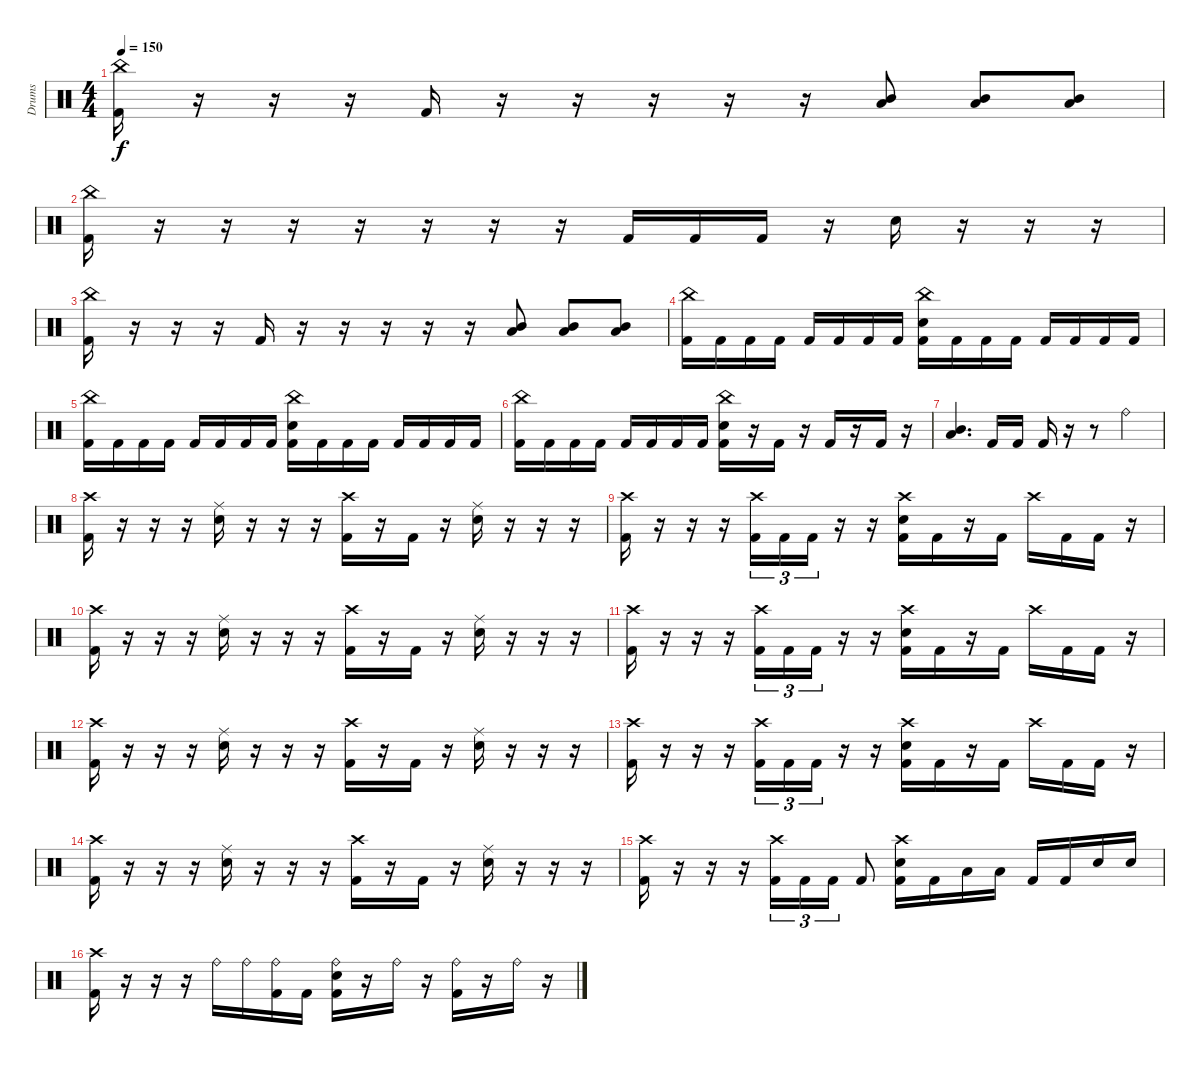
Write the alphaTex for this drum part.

\track ("Drums" "Drums") {instrument percussion}
\staff {score}
\articulation defaults
\ts (4 4)
\tempo 150
\clef neutral
\ks c
("China (hit)" "Kick (hit) 2").16{dy f} r.16 r.16 r.16 "Kick (hit) 2".16 r.16 r.16 r.16 r.16 r.16 ("Mid Tom (hit)" "Low Tom (hit)").8 ("Mid Tom (hit)" "Low Tom (hit)").8 ("Mid Tom (hit)" "Low Tom (hit)").8 |
("China (hit)" "Kick (hit) 2").16 r.16 r.16 r.16 r.16 r.16 r.16 r.16 "Kick (hit) 2".16 "Kick (hit) 2".16 "Kick (hit) 2".16 r.16 "Snare (hit) 2".16 r.16 r.16 r.16 |
("China (hit)" "Kick (hit) 2").16 r.16 r.16 r.16 "Kick (hit) 2".16 r.16 r.16 r.16 r.16 r.16 ("Mid Tom (hit)" "Low Tom (hit)").8 ("Mid Tom (hit)" "Low Tom (hit)").8 ("Mid Tom (hit)" "Low Tom (hit)").8 |
("China (hit)" "Kick (hit) 2").16 "Kick (hit) 2".16 "Kick (hit) 2".16 "Kick (hit) 2".16 "Kick (hit) 2".16 "Kick (hit) 2".16 "Kick (hit) 2".16 "Kick (hit) 2".16 ("China (hit)" "Snare (hit) 2" "Kick (hit) 2").16 "Kick (hit) 2".16 "Kick (hit) 2".16 "Kick (hit) 2".16 "Kick (hit) 2".16 "Kick (hit) 2".16 "Kick (hit) 2".16 "Kick (hit) 2".16 |
("China (hit)" "Kick (hit) 2").16 "Kick (hit) 2".16 "Kick (hit) 2".16 "Kick (hit) 2".16 "Kick (hit) 2".16 "Kick (hit) 2".16 "Kick (hit) 2".16 "Kick (hit) 2".16 ("China (hit)" "Snare (hit) 2" "Kick (hit) 2").16 "Kick (hit) 2".16 "Kick (hit) 2".16 "Kick (hit) 2".16 "Kick (hit) 2".16 "Kick (hit) 2".16 "Kick (hit) 2".16 "Kick (hit) 2".16 |
("China (hit)" "Kick (hit) 2").16 "Kick (hit) 2".16 "Kick (hit) 2".16 "Kick (hit) 2".16 "Kick (hit) 2".16 "Kick (hit) 2".16 "Kick (hit) 2".16 "Kick (hit) 2".16 ("China (hit)" "Snare (hit) 2" "Kick (hit) 2").16 r.16 "Kick (hit) 2".16 r.16 "Kick (hit) 2".16 r.16 "Kick (hit) 2".16 r.16 |
("Mid Tom (hit)" "Low Tom (hit)").4{d} "Kick (hit) 2".16 "Kick (hit) 2".16 "Kick (hit) 2".16 r.16 r.8 "Ride (bell)".4 |
("Crash high (hit)" "Kick (hit) 2").16 r.16 r.16 r.16 ("Ride (middle)" "Snare (hit) 2").16 r.16 r.16 r.16 ("Crash high (hit)" "Kick (hit) 2").16 r.16 "Kick (hit) 2".16 r.16 ("Ride (middle)" "Snare (hit) 2").16 r.16 r.16 r.16 |
("Crash high (hit)" "Kick (hit) 2").16 r.16 r.16 r.16 ("Crash high (hit)" "Kick (hit) 2").16{tu (3 2)} "Kick (hit) 2".16{tu (3 2)} "Kick (hit) 2".16{tu (3 2)} r.16 r.16 ("Crash high (hit)" "Snare (hit) 2" "Kick (hit) 2").16 "Kick (hit) 2".16 r.16 "Kick (hit) 2".16 "Crash high (hit)".16 "Kick (hit) 2".16 "Kick (hit) 2".16 r.16 |
("Crash high (hit)" "Kick (hit) 2").16 r.16 r.16 r.16 ("Ride (middle)" "Snare (hit) 2").16 r.16 r.16 r.16 ("Crash high (hit)" "Kick (hit) 2").16 r.16 "Kick (hit) 2".16 r.16 ("Ride (middle)" "Snare (hit) 2").16 r.16 r.16 r.16 |
("Crash high (hit)" "Kick (hit) 2").16 r.16 r.16 r.16 ("Crash high (hit)" "Kick (hit) 2").16{tu (3 2)} "Kick (hit) 2".16{tu (3 2)} "Kick (hit) 2".16{tu (3 2)} r.16 r.16 ("Crash high (hit)" "Snare (hit) 2" "Kick (hit) 2").16 "Kick (hit) 2".16 r.16 "Kick (hit) 2".16 "Crash high (hit)".16 "Kick (hit) 2".16 "Kick (hit) 2".16 r.16 |
("Crash high (hit)" "Kick (hit) 2").16 r.16 r.16 r.16 ("Ride (middle)" "Snare (hit) 2").16 r.16 r.16 r.16 ("Crash high (hit)" "Kick (hit) 2").16 r.16 "Kick (hit) 2".16 r.16 ("Ride (middle)" "Snare (hit) 2").16 r.16 r.16 r.16 |
("Crash high (hit)" "Kick (hit) 2").16 r.16 r.16 r.16 ("Crash high (hit)" "Kick (hit) 2").16{tu (3 2)} "Kick (hit) 2".16{tu (3 2)} "Kick (hit) 2".16{tu (3 2)} r.16 r.16 ("Crash high (hit)" "Snare (hit) 2" "Kick (hit) 2").16 "Kick (hit) 2".16 r.16 "Kick (hit) 2".16 "Crash high (hit)".16 "Kick (hit) 2".16 "Kick (hit) 2".16 r.16 |
("Crash high (hit)" "Kick (hit) 2").16 r.16 r.16 r.16 ("Ride (middle)" "Snare (hit) 2").16 r.16 r.16 r.16 ("Crash high (hit)" "Kick (hit) 2").16 r.16 "Kick (hit) 2".16 r.16 ("Ride (middle)" "Snare (hit) 2").16 r.16 r.16 r.16 |
("Crash high (hit)" "Kick (hit) 2").16 r.16 r.16 r.16 ("Crash high (hit)" "Kick (hit) 2").16{tu (3 2)} "Kick (hit) 2".16{tu (3 2)} "Kick (hit) 2".16{tu (3 2)} "Kick (hit) 2".8 ("Crash high (hit)" "Snare (hit) 2" "Kick (hit) 2").16 "Kick (hit) 2".16 "Low Tom (hit)".16 "Low Tom (hit)".16 "Kick (hit) 2".16 "Kick (hit) 2".16 "Snare (hit) 2".16 "Snare (hit) 2".16 |
("Crash high (hit)" "Kick (hit) 2").16 r.16 r.16 r.16 "Ride (bell)".16 "Ride (bell)".16 ("Ride (bell)" "Kick (hit) 2").16 "Kick (hit) 2".16 ("Ride (bell)" "Snare (hit) 2" "Kick (hit) 2").16 r.16 "Ride (bell)".16 r.16 ("Ride (bell)" "Kick (hit) 2").16 r.16 "Ride (bell)".16 r.16
